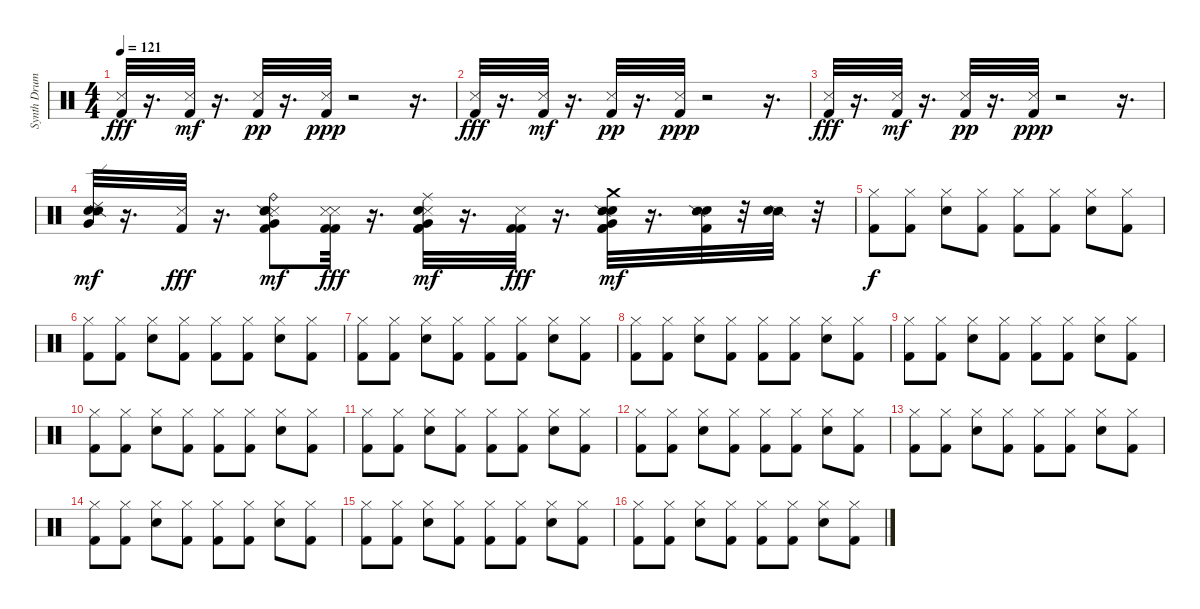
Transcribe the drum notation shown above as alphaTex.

\track ("Synth Drums" "Synth Drum") {instrument percussion}
\staff {score}
\articulation defaults
\ts (4 4)
\tempo 121
\clef neutral
\ks c
("Kick (hit) 2" "Metronome (hit)").32{dy fff} r.16{d} ("Kick (hit) 2" "Metronome (hit)").32{dy mf} r.16{d} ("Kick (hit) 2" "Metronome (hit)").32{dy pp} r.16{d} ("Kick (hit) 2" "Metronome (hit)").32{dy ppp} r.2 r.16{d} |
("Kick (hit) 2" "Metronome (hit)").32{dy fff} r.16{d} ("Kick (hit) 2" "Metronome (hit)").32{dy mf} r.16{d} ("Kick (hit) 2" "Metronome (hit)").32{dy pp} r.16{d} ("Kick (hit) 2" "Metronome (hit)").32{dy ppp} r.2 r.16{d} |
("Kick (hit) 2" "Metronome (hit)").32{dy fff} r.16{d} ("Kick (hit) 2" "Metronome (hit)").32{dy mf} r.16{d} ("Kick (hit) 2" "Metronome (hit)").32{dy pp} r.16{d} ("Kick (hit) 2" "Metronome (hit)").32{dy ppp} r.2 r.16{d} |
("Ride (edge) 2" "Very Low Tom (hit)" "Snare (hit) 2" "Snare (side stick) 2").32{dy mf} r.16{d} ("Kick (hit) 2" "Metronome (hit)").32{dy fff} r.16{d} ("Kick (hit) 2" "Metronome (hit)" "Ride (bell)" "Very Low Tom (hit)" "Snare (hit) 2" "Snare (side stick) 2").8{dy mf} ("Kick (hit) 2" "Metronome (hit)" "Kick (hit) 2" "Metronome (hit)").32{dy fff} r.16{d} ("Kick (hit) 2" "Metronome (hit)" "Kick (hit) 2" "Ride (middle)" "Very Low Tom (hit)" "Snare (hit) 2").32{dy mf} r.16{d} ("Kick (hit) 2" "Kick (hit) 2" "Metronome (hit)").32{dy fff} r.16{d} ("Kick (hit) 2" "Kick (hit) 2" "Crash medium (hit)" "Very Low Tom (hit)" "Snare (hit) 2" "Snare (side stick) 2").32{dy mf} r.16{d} ("Kick (hit) 2" "Snare (hit) 2" "Snare (side stick) 2").32 r.32 ("Snare (side stick) 2" "Snare (hit) 2").32 r.32 |
("Hi-Hat (closed)" "Kick (hit) 2").8{dy f} ("Hi-Hat (closed)" "Kick (hit) 2").8 ("Hi-Hat (closed)" "Electric Snare (hit)").8 ("Hi-Hat (closed)" "Kick (hit) 2").8 ("Hi-Hat (closed)" "Kick (hit) 2").8 ("Hi-Hat (closed)" "Kick (hit) 2").8 ("Hi-Hat (closed)" "Electric Snare (hit)").8 ("Hi-Hat (closed)" "Kick (hit) 2").8 |
("Hi-Hat (closed)" "Kick (hit) 2").8 ("Hi-Hat (closed)" "Kick (hit) 2").8 ("Hi-Hat (closed)" "Electric Snare (hit)").8 ("Hi-Hat (closed)" "Kick (hit) 2").8 ("Hi-Hat (closed)" "Kick (hit) 2").8 ("Hi-Hat (closed)" "Kick (hit) 2").8 ("Hi-Hat (closed)" "Electric Snare (hit)").8 ("Hi-Hat (closed)" "Kick (hit) 2").8 |
("Hi-Hat (closed)" "Kick (hit) 2").8 ("Hi-Hat (closed)" "Kick (hit) 2").8 ("Hi-Hat (closed)" "Electric Snare (hit)").8 ("Hi-Hat (closed)" "Kick (hit) 2").8 ("Hi-Hat (closed)" "Kick (hit) 2").8 ("Hi-Hat (closed)" "Kick (hit) 2").8 ("Hi-Hat (closed)" "Electric Snare (hit)").8 ("Hi-Hat (closed)" "Kick (hit) 2").8 |
("Hi-Hat (closed)" "Kick (hit) 2").8 ("Hi-Hat (closed)" "Kick (hit) 2").8 ("Hi-Hat (closed)" "Electric Snare (hit)").8 ("Hi-Hat (closed)" "Kick (hit) 2").8 ("Hi-Hat (closed)" "Kick (hit) 2").8 ("Hi-Hat (closed)" "Kick (hit) 2").8 ("Hi-Hat (closed)" "Electric Snare (hit)").8 ("Hi-Hat (closed)" "Kick (hit) 2").8 |
("Hi-Hat (closed)" "Kick (hit) 2").8 ("Hi-Hat (closed)" "Kick (hit) 2").8 ("Hi-Hat (closed)" "Electric Snare (hit)").8 ("Hi-Hat (closed)" "Kick (hit) 2").8 ("Hi-Hat (closed)" "Kick (hit) 2").8 ("Hi-Hat (closed)" "Kick (hit) 2").8 ("Hi-Hat (closed)" "Electric Snare (hit)").8 ("Hi-Hat (closed)" "Kick (hit) 2").8 |
("Hi-Hat (closed)" "Kick (hit) 2").8 ("Hi-Hat (closed)" "Kick (hit) 2").8 ("Hi-Hat (closed)" "Electric Snare (hit)").8 ("Hi-Hat (closed)" "Kick (hit) 2").8 ("Hi-Hat (closed)" "Kick (hit) 2").8 ("Hi-Hat (closed)" "Kick (hit) 2").8 ("Hi-Hat (closed)" "Electric Snare (hit)").8 ("Hi-Hat (closed)" "Kick (hit) 2").8 |
("Hi-Hat (closed)" "Kick (hit) 2").8 ("Hi-Hat (closed)" "Kick (hit) 2").8 ("Hi-Hat (closed)" "Electric Snare (hit)").8 ("Hi-Hat (closed)" "Kick (hit) 2").8 ("Hi-Hat (closed)" "Kick (hit) 2").8 ("Hi-Hat (closed)" "Kick (hit) 2").8 ("Hi-Hat (closed)" "Electric Snare (hit)").8 ("Hi-Hat (closed)" "Kick (hit) 2").8 |
("Hi-Hat (closed)" "Kick (hit) 2").8 ("Hi-Hat (closed)" "Kick (hit) 2").8 ("Hi-Hat (closed)" "Electric Snare (hit)").8 ("Hi-Hat (closed)" "Kick (hit) 2").8 ("Hi-Hat (closed)" "Kick (hit) 2").8 ("Hi-Hat (closed)" "Kick (hit) 2").8 ("Hi-Hat (closed)" "Electric Snare (hit)").8 ("Hi-Hat (closed)" "Kick (hit) 2").8 |
("Hi-Hat (closed)" "Kick (hit) 2").8 ("Hi-Hat (closed)" "Kick (hit) 2").8 ("Hi-Hat (closed)" "Electric Snare (hit)").8 ("Hi-Hat (closed)" "Kick (hit) 2").8 ("Hi-Hat (closed)" "Kick (hit) 2").8 ("Hi-Hat (closed)" "Kick (hit) 2").8 ("Hi-Hat (closed)" "Electric Snare (hit)").8 ("Hi-Hat (closed)" "Kick (hit) 2").8 |
("Hi-Hat (closed)" "Kick (hit) 2").8 ("Hi-Hat (closed)" "Kick (hit) 2").8 ("Hi-Hat (closed)" "Electric Snare (hit)").8 ("Hi-Hat (closed)" "Kick (hit) 2").8 ("Hi-Hat (closed)" "Kick (hit) 2").8 ("Hi-Hat (closed)" "Kick (hit) 2").8 ("Hi-Hat (closed)" "Electric Snare (hit)").8 ("Hi-Hat (closed)" "Kick (hit) 2").8 |
("Hi-Hat (closed)" "Kick (hit) 2").8 ("Hi-Hat (closed)" "Kick (hit) 2").8 ("Hi-Hat (closed)" "Electric Snare (hit)").8 ("Hi-Hat (closed)" "Kick (hit) 2").8 ("Hi-Hat (closed)" "Kick (hit) 2").8 ("Hi-Hat (closed)" "Kick (hit) 2").8 ("Hi-Hat (closed)" "Electric Snare (hit)").8 ("Hi-Hat (closed)" "Kick (hit) 2").8 |
("Hi-Hat (closed)" "Kick (hit) 2").8 ("Hi-Hat (closed)" "Kick (hit) 2").8 ("Hi-Hat (closed)" "Electric Snare (hit)").8 ("Hi-Hat (closed)" "Kick (hit) 2").8 ("Hi-Hat (closed)" "Kick (hit) 2").8 ("Hi-Hat (closed)" "Kick (hit) 2").8 ("Hi-Hat (closed)" "Electric Snare (hit)").8 ("Hi-Hat (closed)" "Kick (hit) 2").8
